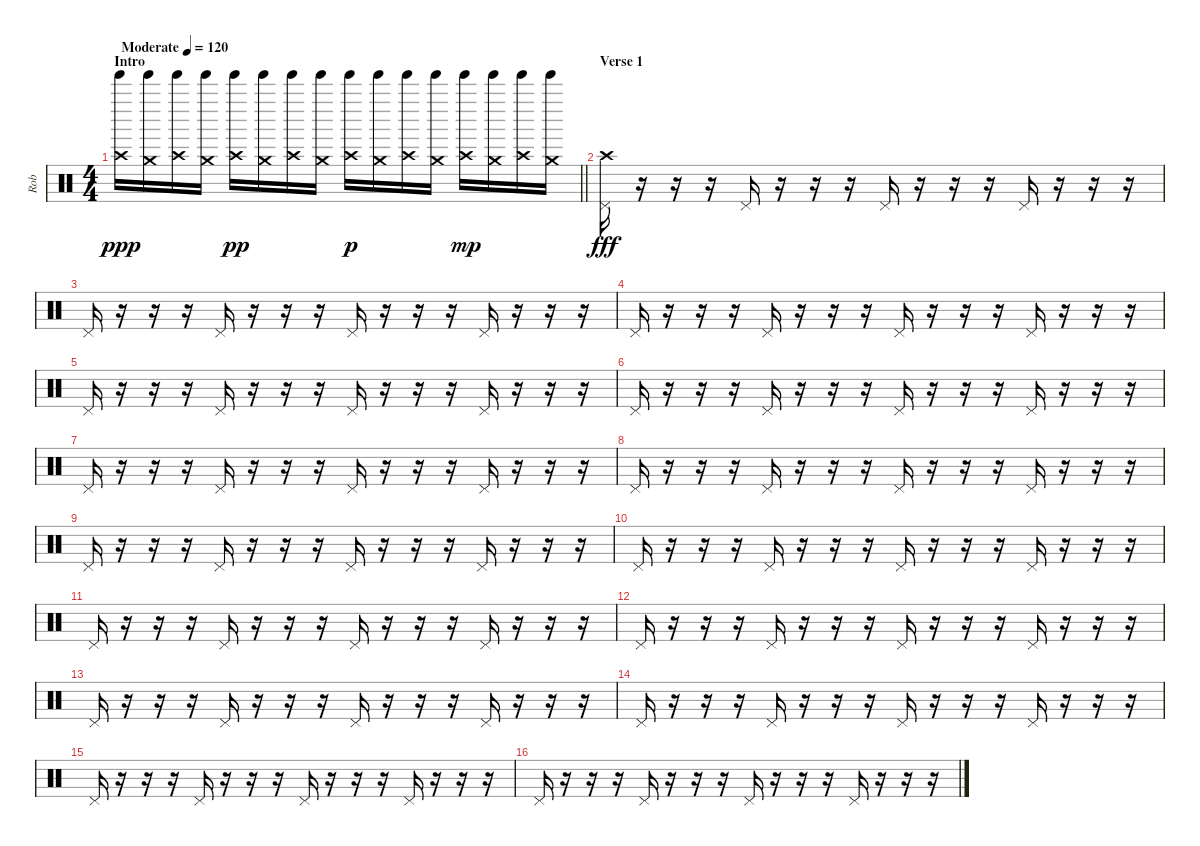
\track ("Rob" "Rob") {instrument percussion}
\staff {score}
\articulation defaults
\ts (4 4)
\section ("" "Intro")
\tempo (120 "Moderate")
\clef neutral
\barLineRight lightlight
\ks c
("Crash high (hit)" "Tinkle Bell (hit)").16{dy ppp} ("Crash medium (hit)" "Tinkle Bell (hit)").16 ("Crash high (hit)" "Tinkle Bell (hit)").16 ("Crash medium (hit)" "Tinkle Bell (hit)").16 ("Crash high (hit)" "Tinkle Bell (hit)").16{dy pp} ("Crash medium (hit)" "Tinkle Bell (hit)").16 ("Crash high (hit)" "Tinkle Bell (hit)").16 ("Crash medium (hit)" "Tinkle Bell (hit)").16 ("Crash high (hit)" "Tinkle Bell (hit)").16{dy p} ("Crash medium (hit)" "Tinkle Bell (hit)").16 ("Crash high (hit)" "Tinkle Bell (hit)").16 ("Crash medium (hit)" "Tinkle Bell (hit)").16 ("Crash high (hit)" "Tinkle Bell (hit)").16{dy mp} ("Crash medium (hit)" "Tinkle Bell (hit)").16 ("Crash high (hit)" "Tinkle Bell (hit)").16 ("Crash medium (hit)" "Tinkle Bell (hit)").16 |
\section ("" "Verse 1")
("Crash high (hit)" "Pedal Hi-Hat (hit)").16{dy fff} r.16 r.16 r.16 "Pedal Hi-Hat (hit)".16 r.16 r.16 r.16 "Pedal Hi-Hat (hit)".16 r.16 r.16 r.16 "Pedal Hi-Hat (hit)".16 r.16 r.16 r.16 |
"Pedal Hi-Hat (hit)".16 r.16 r.16 r.16 "Pedal Hi-Hat (hit)".16 r.16 r.16 r.16 "Pedal Hi-Hat (hit)".16 r.16 r.16 r.16 "Pedal Hi-Hat (hit)".16 r.16 r.16 r.16 |
"Pedal Hi-Hat (hit)".16 r.16 r.16 r.16 "Pedal Hi-Hat (hit)".16 r.16 r.16 r.16 "Pedal Hi-Hat (hit)".16 r.16 r.16 r.16 "Pedal Hi-Hat (hit)".16 r.16 r.16 r.16 |
"Pedal Hi-Hat (hit)".16 r.16 r.16 r.16 "Pedal Hi-Hat (hit)".16 r.16 r.16 r.16 "Pedal Hi-Hat (hit)".16 r.16 r.16 r.16 "Pedal Hi-Hat (hit)".16 r.16 r.16 r.16 |
"Pedal Hi-Hat (hit)".16 r.16 r.16 r.16 "Pedal Hi-Hat (hit)".16 r.16 r.16 r.16 "Pedal Hi-Hat (hit)".16 r.16 r.16 r.16 "Pedal Hi-Hat (hit)".16 r.16 r.16 r.16 |
"Pedal Hi-Hat (hit)".16 r.16 r.16 r.16 "Pedal Hi-Hat (hit)".16 r.16 r.16 r.16 "Pedal Hi-Hat (hit)".16 r.16 r.16 r.16 "Pedal Hi-Hat (hit)".16 r.16 r.16 r.16 |
"Pedal Hi-Hat (hit)".16 r.16 r.16 r.16 "Pedal Hi-Hat (hit)".16 r.16 r.16 r.16 "Pedal Hi-Hat (hit)".16 r.16 r.16 r.16 "Pedal Hi-Hat (hit)".16 r.16 r.16 r.16 |
"Pedal Hi-Hat (hit)".16 r.16 r.16 r.16 "Pedal Hi-Hat (hit)".16 r.16 r.16 r.16 "Pedal Hi-Hat (hit)".16 r.16 r.16 r.16 "Pedal Hi-Hat (hit)".16 r.16 r.16 r.16 |
"Pedal Hi-Hat (hit)".16 r.16 r.16 r.16 "Pedal Hi-Hat (hit)".16 r.16 r.16 r.16 "Pedal Hi-Hat (hit)".16 r.16 r.16 r.16 "Pedal Hi-Hat (hit)".16 r.16 r.16 r.16 |
"Pedal Hi-Hat (hit)".16 r.16 r.16 r.16 "Pedal Hi-Hat (hit)".16 r.16 r.16 r.16 "Pedal Hi-Hat (hit)".16 r.16 r.16 r.16 "Pedal Hi-Hat (hit)".16 r.16 r.16 r.16 |
"Pedal Hi-Hat (hit)".16 r.16 r.16 r.16 "Pedal Hi-Hat (hit)".16 r.16 r.16 r.16 "Pedal Hi-Hat (hit)".16 r.16 r.16 r.16 "Pedal Hi-Hat (hit)".16 r.16 r.16 r.16 |
"Pedal Hi-Hat (hit)".16 r.16 r.16 r.16 "Pedal Hi-Hat (hit)".16 r.16 r.16 r.16 "Pedal Hi-Hat (hit)".16 r.16 r.16 r.16 "Pedal Hi-Hat (hit)".16 r.16 r.16 r.16 |
"Pedal Hi-Hat (hit)".16 r.16 r.16 r.16 "Pedal Hi-Hat (hit)".16 r.16 r.16 r.16 "Pedal Hi-Hat (hit)".16 r.16 r.16 r.16 "Pedal Hi-Hat (hit)".16 r.16 r.16 r.16 |
"Pedal Hi-Hat (hit)".16 r.16 r.16 r.16 "Pedal Hi-Hat (hit)".16 r.16 r.16 r.16 "Pedal Hi-Hat (hit)".16 r.16 r.16 r.16 "Pedal Hi-Hat (hit)".16 r.16 r.16 r.16 |
"Pedal Hi-Hat (hit)".16 r.16 r.16 r.16 "Pedal Hi-Hat (hit)".16 r.16 r.16 r.16 "Pedal Hi-Hat (hit)".16 r.16 r.16 r.16 "Pedal Hi-Hat (hit)".16 r.16 r.16 r.16
